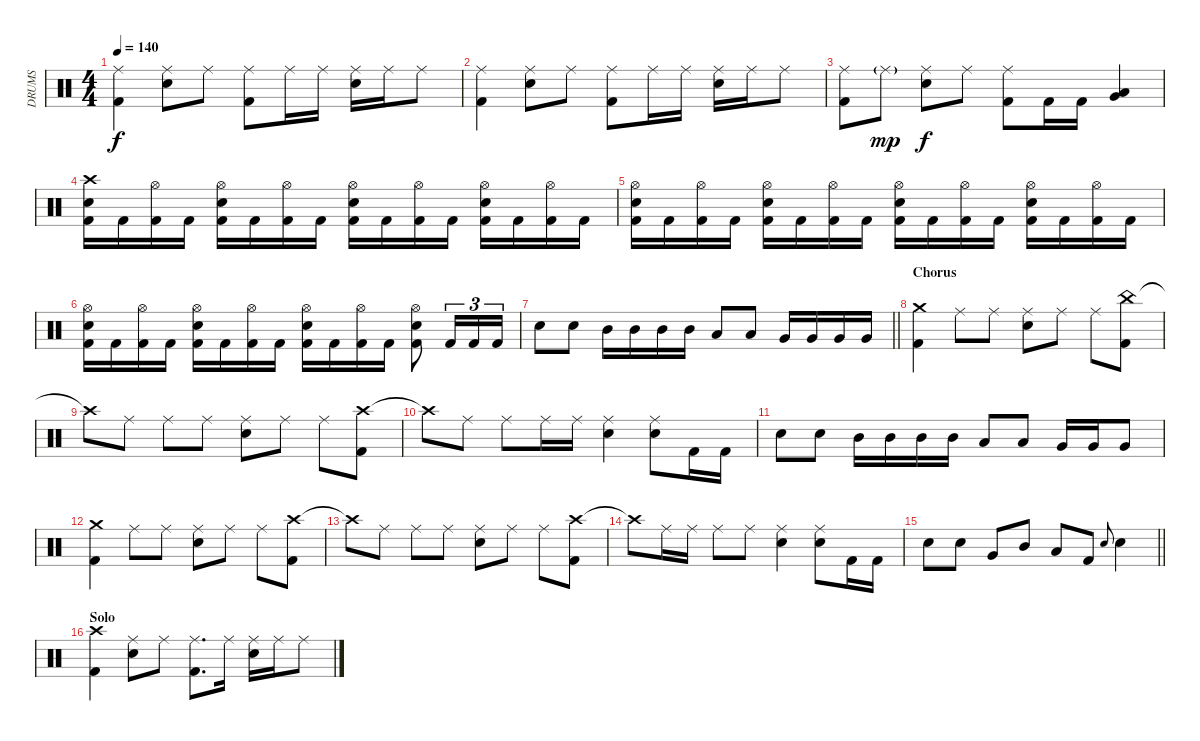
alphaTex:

\track ("DRUMS" "DRUMS") {instrument percussion}
\staff {score}
\articulation defaults
\ts (4 4)
\tempo 140
\clef neutral
\ks c
("Ride (middle)" "Kick (hit) 2").4{dy f} ("Ride (middle)" "Snare (hit) 2").8 "Ride (middle)".8 ("Ride (middle)" "Kick (hit) 2").8 "Ride (middle)".16 "Ride (middle)".16 ("Ride (middle)" "Snare (hit) 2").16 "Ride (middle)".16 "Ride (middle)".8 |
("Ride (middle)" "Kick (hit) 2").4 ("Ride (middle)" "Snare (hit) 2").8 "Ride (middle)".8 ("Ride (middle)" "Kick (hit) 2").8 "Ride (middle)".16 "Ride (middle)".16 ("Ride (middle)" "Snare (hit) 2").16 "Ride (middle)".16 "Ride (middle)".8 |
("Ride (middle)" "Kick (hit) 2").8 "Ride (middle)"{g}.8{dy mp} ("Ride (middle)" "Snare (hit) 2").8{dy f} "Ride (middle)".8 ("Ride (middle)" "Kick (hit) 2").8 "Kick (hit) 2".16 "Kick (hit) 2".16 ("Low Tom (hit)" "Very Low Tom (hit)").4 |
("Crash high (hit)" "Snare (hit) 2" "Kick (hit) 2").16 "Kick (hit) 2".16 ("Hi-Hat (open)" "Kick (hit) 2").16 "Kick (hit) 2".16 ("Hi-Hat (open)" "Snare (hit) 2" "Kick (hit) 2").16 "Kick (hit) 2".16 ("Hi-Hat (open)" "Kick (hit) 2").16 "Kick (hit) 2".16 ("Hi-Hat (open)" "Snare (hit) 2" "Kick (hit) 2").16 "Kick (hit) 2".16 ("Hi-Hat (open)" "Kick (hit) 2").16 "Kick (hit) 2".16 ("Hi-Hat (open)" "Snare (hit) 2" "Kick (hit) 2").16 "Kick (hit) 2".16 ("Hi-Hat (open)" "Kick (hit) 2").16 "Kick (hit) 2".16 |
("Hi-Hat (open)" "Snare (hit) 2" "Kick (hit) 2").16 "Kick (hit) 2".16 ("Hi-Hat (open)" "Kick (hit) 2").16 "Kick (hit) 2".16 ("Hi-Hat (open)" "Snare (hit) 2" "Kick (hit) 2").16 "Kick (hit) 2".16 ("Hi-Hat (open)" "Kick (hit) 2").16 "Kick (hit) 2".16 ("Hi-Hat (open)" "Snare (hit) 2" "Kick (hit) 2").16 "Kick (hit) 2".16 ("Hi-Hat (open)" "Kick (hit) 2").16 "Kick (hit) 2".16 ("Hi-Hat (open)" "Snare (hit) 2" "Kick (hit) 2").16 "Kick (hit) 2".16 ("Hi-Hat (open)" "Kick (hit) 2").16 "Kick (hit) 2".16 |
("Hi-Hat (open)" "Snare (hit) 2" "Kick (hit) 2").16 "Kick (hit) 2".16 ("Hi-Hat (open)" "Kick (hit) 2").16 "Kick (hit) 2".16 ("Hi-Hat (open)" "Snare (hit) 2" "Kick (hit) 2").16 "Kick (hit) 2".16 ("Hi-Hat (open)" "Kick (hit) 2").16 "Kick (hit) 2".16 ("Hi-Hat (open)" "Snare (hit) 2" "Kick (hit) 2").16 "Kick (hit) 2".16 ("Hi-Hat (open)" "Kick (hit) 2").16 "Kick (hit) 2".16 ("Hi-Hat (open)" "Snare (hit) 2" "Kick (hit) 2").8 "Kick (hit) 2".16{tu (3 2)} "Kick (hit) 2".16{tu (3 2)} "Kick (hit) 2".16{tu (3 2)} |
\barLineRight lightlight "Snare (hit) 2".8 "Snare (hit) 2".8 "Mid Tom (hit)".16 "Mid Tom (hit)".16 "Mid Tom (hit)".16 "Mid Tom (hit)".16 "Low Tom (hit)".8 "Low Tom (hit)".8 "Very Low Tom (hit)".16 "Very Low Tom (hit)".16 "Very Low Tom (hit)".16 "Very Low Tom (hit)".16
|
\section ("" "Chorus")
("Crash medium (hit)" "Kick (hit) 2").4 "Ride (middle)".8 "Ride (middle)".8 ("Ride (middle)" "Snare (hit) 2").8 "Ride (middle)".8 "Ride (middle)".8 ("China (hit)" "Kick (hit) 2").8 |
"Crash high (hit)"{t}.8 "Ride (middle)".8 "Ride (middle)".8 "Ride (middle)".8 ("Ride (middle)" "Snare (hit) 2").8 "Ride (middle)".8 "Ride (middle)".8 ("Crash high (hit)" "Kick (hit) 2").8 |
"Crash high (hit)"{t}.8 "Ride (middle)".8 "Ride (middle)".8 "Ride (middle)".16 "Ride (middle)".16 ("Ride (middle)" "Snare (hit) 2").4 ("Ride (middle)" "Snare (hit) 2").8 "Kick (hit) 2".16 "Kick (hit) 2".16 |
"Snare (hit) 2".8 "Snare (hit) 2".8 "Mid Tom (hit)".16 "Mid Tom (hit)".16 "Mid Tom (hit)".16 "Mid Tom (hit)".16 "Low Tom (hit)".8 "Low Tom (hit)".8 "Very Low Tom (hit)".16 "Very Low Tom (hit)".16 "Very Low Tom (hit)".8 |
("Crash medium (hit)" "Kick (hit) 2").4 "Ride (middle)".8 "Ride (middle)".8 ("Ride (middle)" "Snare (hit) 2").8 "Ride (middle)".8 "Ride (middle)".8 ("Crash high (hit)" "Kick (hit) 2").8 |
"Crash high (hit)"{t}.8 "Ride (middle)".8 "Ride (middle)".8 "Ride (middle)".8 ("Ride (middle)" "Snare (hit) 2").8 "Ride (middle)".8 "Ride (middle)".8 ("Crash high (hit)" "Kick (hit) 2").8 |
"Crash high (hit)"{t}.8 "Ride (middle)".16 "Ride (middle)".16 "Ride (middle)".8 "Ride (middle)".8 ("Ride (middle)" "Snare (hit) 2").4 ("Ride (middle)" "Snare (hit) 2").8 "Kick (hit) 2".16 "Kick (hit) 2".16 |
\barLineRight lightlight "Snare (hit) 2".8 "Snare (hit) 2".8 "Very Low Tom (hit)".8 "Mid Tom (hit)".8 "Low Tom (hit)".8 "Kick (hit) 2".8 "Snare (hit) 2".8{gr onbeat} "Snare (hit) 2".4
|
\section ("" "Solo")
("Crash high (hit)" "Kick (hit) 2").4 ("Ride (middle)" "Snare (hit) 2").8 "Ride (middle)".8 ("Ride (middle)" "Kick (hit) 2").8{d} "Ride (middle)".16 ("Ride (middle)" "Snare (hit) 2").16 "Ride (middle)".16 "Ride (middle)".8
